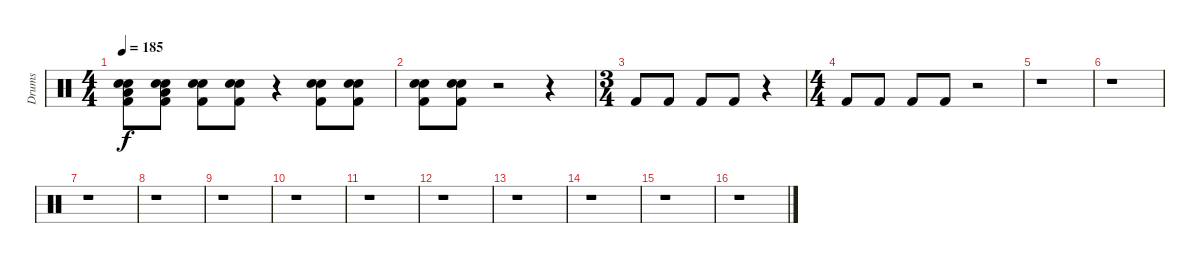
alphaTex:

\track ("Drums" "Drums") {instrument percussion}
\staff {score}
\articulation defaults
\ts (4 4)
\tempo 185
\clef neutral
\ks c
("Snare (hit) 2" "Low Tom (hit)" "Kick (hit) 2" "Electric Snare (hit)").8{dy f} ("Snare (hit) 2" "Low Tom (hit)" "Kick (hit) 2" "Electric Snare (hit)").8 ("Snare (hit) 2" "Kick (hit) 2" "Electric Snare (hit)").8 ("Snare (hit) 2" "Kick (hit) 2" "Electric Snare (hit)").8 r.4 ("Snare (hit) 2" "Kick (hit) 2" "Electric Snare (hit)").8 ("Snare (hit) 2" "Kick (hit) 2" "Electric Snare (hit)").8 |
("Snare (hit) 2" "Kick (hit) 2" "Electric Snare (hit)").8 ("Snare (hit) 2" "Kick (hit) 2" "Electric Snare (hit)").8 r.2 r.4 |
\ts (3 4)
"Kick (hit) 2".8 "Kick (hit) 2".8 "Kick (hit) 2".8 "Kick (hit) 2".8 r.4 |
\ts (4 4)
"Kick (hit) 2".8 "Kick (hit) 2".8 "Kick (hit) 2".8 "Kick (hit) 2".8 r.2 |
r.1 |
r.1 |
r.1 |
r.1 |
r.1 |
r.1 |
r.1 |
r.1 |
r.1 |
r.1 |
r.1 |
r.1
